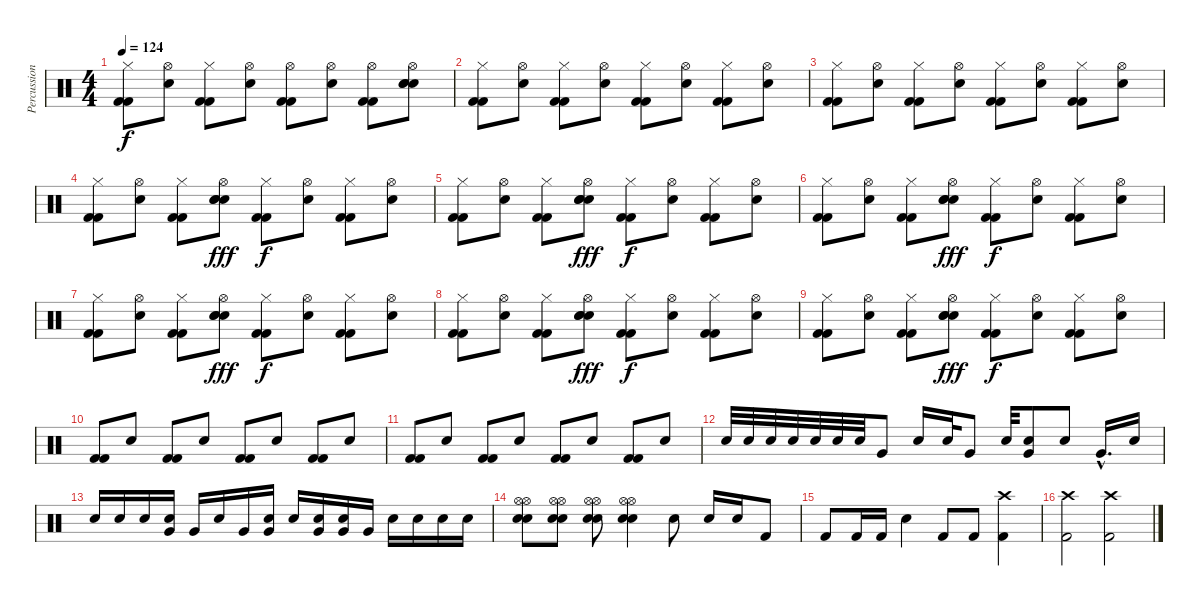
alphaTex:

\track ("Percussions" "Percussion") {instrument percussion}
\staff {score}
\articulation defaults
\ts (4 4)
\tempo 124
\clef neutral
\ks c
("Kick (hit) 2" "Kick (hit) 2" "Hi-Hat (closed)").8{dy f} ("Hand Clap (hit)" "Hi-Hat (open)").8 ("Kick (hit) 2" "Kick (hit) 2" "Hi-Hat (closed)").8 ("Hand Clap (hit)" "Hi-Hat (open)").8 ("Kick (hit) 2" "Kick (hit) 2" "Hi-Hat (open)").8 ("Hand Clap (hit)" "Hi-Hat (open)").8 ("Kick (hit) 2" "Kick (hit) 2" "Hi-Hat (open)").8 ("Hand Clap (hit)" "Electric Snare (hit)" "Electric Snare (hit)" "Hi-Hat (open)").8 |
("Kick (hit) 2" "Kick (hit) 2" "Hi-Hat (closed)").8 ("Hand Clap (hit)" "Hi-Hat (open)").8 ("Kick (hit) 2" "Kick (hit) 2" "Hi-Hat (closed)").8 ("Hand Clap (hit)" "Hi-Hat (open)").8 ("Kick (hit) 2" "Kick (hit) 2" "Hi-Hat (closed)").8 ("Hand Clap (hit)" "Hi-Hat (open)").8 ("Kick (hit) 2" "Kick (hit) 2" "Hi-Hat (closed)").8 ("Hand Clap (hit)" "Hi-Hat (open)").8 |
("Kick (hit) 2" "Kick (hit) 2" "Hi-Hat (closed)").8 ("Hand Clap (hit)" "Hi-Hat (open)").8 ("Kick (hit) 2" "Kick (hit) 2" "Hi-Hat (closed)").8 ("Hand Clap (hit)" "Hi-Hat (open)").8 ("Kick (hit) 2" "Kick (hit) 2" "Hi-Hat (closed)").8 ("Hand Clap (hit)" "Hi-Hat (open)").8 ("Kick (hit) 2" "Kick (hit) 2" "Hi-Hat (closed)").8 ("Hand Clap (hit)" "Hi-Hat (open)").8 |
("Kick (hit) 2" "Kick (hit) 2" "Hi-Hat (closed)").8 ("Hand Clap (hit)" "Hi-Hat (open)").8 ("Kick (hit) 2" "Kick (hit) 2" "Hi-Hat (closed)").8 ("Hand Clap (hit)" "Electric Snare (hit)" "Electric Snare (hit)" "Hi-Hat (open)").8{dy fff} ("Kick (hit) 2" "Kick (hit) 2" "Hi-Hat (closed)").8{dy f} ("Hand Clap (hit)" "Hi-Hat (open)").8 ("Kick (hit) 2" "Kick (hit) 2" "Hi-Hat (closed)").8 ("Hand Clap (hit)" "Hi-Hat (open)").8 |
("Kick (hit) 2" "Kick (hit) 2" "Hi-Hat (closed)").8 ("Hand Clap (hit)" "Hi-Hat (open)").8 ("Kick (hit) 2" "Kick (hit) 2" "Hi-Hat (closed)").8 ("Hand Clap (hit)" "Electric Snare (hit)" "Electric Snare (hit)" "Hi-Hat (open)").8{dy fff} ("Kick (hit) 2" "Kick (hit) 2" "Hi-Hat (closed)").8{dy f} ("Hand Clap (hit)" "Hi-Hat (open)").8 ("Kick (hit) 2" "Kick (hit) 2" "Hi-Hat (closed)").8 ("Hand Clap (hit)" "Hi-Hat (open)").8 |
("Kick (hit) 2" "Kick (hit) 2" "Hi-Hat (closed)").8 ("Hand Clap (hit)" "Hi-Hat (open)").8 ("Kick (hit) 2" "Kick (hit) 2" "Hi-Hat (closed)").8 ("Hand Clap (hit)" "Electric Snare (hit)" "Electric Snare (hit)" "Hi-Hat (open)").8{dy fff} ("Kick (hit) 2" "Kick (hit) 2" "Hi-Hat (closed)").8{dy f} ("Hand Clap (hit)" "Hi-Hat (open)").8 ("Kick (hit) 2" "Kick (hit) 2" "Hi-Hat (closed)").8 ("Hand Clap (hit)" "Hi-Hat (open)").8 |
("Kick (hit) 2" "Kick (hit) 2" "Hi-Hat (closed)").8 ("Hand Clap (hit)" "Hi-Hat (open)").8 ("Kick (hit) 2" "Kick (hit) 2" "Hi-Hat (closed)").8 ("Hand Clap (hit)" "Electric Snare (hit)" "Electric Snare (hit)" "Hi-Hat (open)").8{dy fff} ("Kick (hit) 2" "Kick (hit) 2" "Hi-Hat (closed)").8{dy f} ("Hand Clap (hit)" "Hi-Hat (open)").8 ("Kick (hit) 2" "Kick (hit) 2" "Hi-Hat (closed)").8 ("Hand Clap (hit)" "Hi-Hat (open)").8 |
("Kick (hit) 2" "Kick (hit) 2" "Hi-Hat (closed)").8 ("Hand Clap (hit)" "Hi-Hat (open)").8 ("Kick (hit) 2" "Kick (hit) 2" "Hi-Hat (closed)").8 ("Hand Clap (hit)" "Electric Snare (hit)" "Electric Snare (hit)" "Hi-Hat (open)").8{dy fff} ("Kick (hit) 2" "Kick (hit) 2" "Hi-Hat (closed)").8{dy f} ("Hand Clap (hit)" "Hi-Hat (open)").8 ("Kick (hit) 2" "Kick (hit) 2" "Hi-Hat (closed)").8 ("Hand Clap (hit)" "Hi-Hat (open)").8 |
("Kick (hit) 2" "Kick (hit) 2" "Hi-Hat (closed)").8 ("Hand Clap (hit)" "Hi-Hat (open)").8 ("Kick (hit) 2" "Kick (hit) 2" "Hi-Hat (closed)").8 ("Hand Clap (hit)" "Electric Snare (hit)" "Electric Snare (hit)" "Hi-Hat (open)").8{dy fff} ("Kick (hit) 2" "Kick (hit) 2" "Hi-Hat (closed)").8{dy f} ("Hand Clap (hit)" "Hi-Hat (open)").8 ("Kick (hit) 2" "Kick (hit) 2" "Hi-Hat (closed)").8 ("Hand Clap (hit)" "Hi-Hat (open)").8 |
("Kick (hit) 2" "Kick (hit) 2").8 "Hand Clap (hit)".8 ("Kick (hit) 2" "Kick (hit) 2").8 "Hand Clap (hit)".8 ("Kick (hit) 2" "Kick (hit) 2").8 "Hand Clap (hit)".8 ("Kick (hit) 2" "Kick (hit) 2").8 "Hand Clap (hit)".8 |
("Kick (hit) 2" "Kick (hit) 2").8 "Hand Clap (hit)".8 ("Kick (hit) 2" "Kick (hit) 2").8 "Hand Clap (hit)".8 ("Kick (hit) 2" "Kick (hit) 2").8 "Hand Clap (hit)".8 ("Kick (hit) 2" "Kick (hit) 2").8 "Hand Clap (hit)".8 |
"Electric Snare (hit)".32 "Electric Snare (hit)".32 "Electric Snare (hit)".32 "Electric Snare (hit)".32 "Electric Snare (hit)".32 "Electric Snare (hit)".32 "Electric Snare (hit)".32 "Very Low Tom (hit)".8 "Electric Snare (hit)".16 "Electric Snare (hit)".32 "Very Low Tom (hit)".8 "Electric Snare (hit)".32 ("Electric Snare (hit)" "Very Low Tom (hit)").8 "Electric Snare (hit)".8 "Very Low Tom (hit)"{hac}.16{d} "Electric Snare (hit)".16 |
"Electric Snare (hit)".16 "Electric Snare (hit)".16 "Electric Snare (hit)".16 ("Electric Snare (hit)" "Very Low Tom (hit)").16 "Very Low Tom (hit)".16 "Electric Snare (hit)".16 "Very Low Tom (hit)".16 ("Electric Snare (hit)" "Very Low Tom (hit)").16 "Electric Snare (hit)".16 ("Electric Snare (hit)" "Very Low Tom (hit)").16 ("Electric Snare (hit)" "Very Low Tom (hit)").16 "Very Low Tom (hit)".16 "Electric Snare (hit)".16 "Electric Snare (hit)".16 "Electric Snare (hit)".16 "Electric Snare (hit)".16 |
("Hand Clap (hit)" "Hi-Hat (open)" "Electric Snare (hit)" "Hi-Hat (open)").8 ("Hand Clap (hit)" "Hi-Hat (open)" "Electric Snare (hit)" "Hi-Hat (open)").8 ("Hand Clap (hit)" "Hi-Hat (open)" "Electric Snare (hit)" "Hi-Hat (open)").8 ("Hand Clap (hit)" "Hi-Hat (open)" "Electric Snare (hit)" "Hi-Hat (open)").4 "Electric Snare (hit)".8 "Electric Snare (hit)".16 "Snare (hit) 2".16 "Kick (hit) 2".8 |
"Kick (hit) 2".8 "Kick (hit) 2".16 "Kick (hit) 2".16 "Electric Snare (hit)".4 "Kick (hit) 2".8 "Kick (hit) 2".8 ("Kick (hit) 2" "Crash high (hit)").4 |
("Kick (hit) 2" "Crash high (hit)").2 ("Kick (hit) 2" "Crash high (hit)").2
